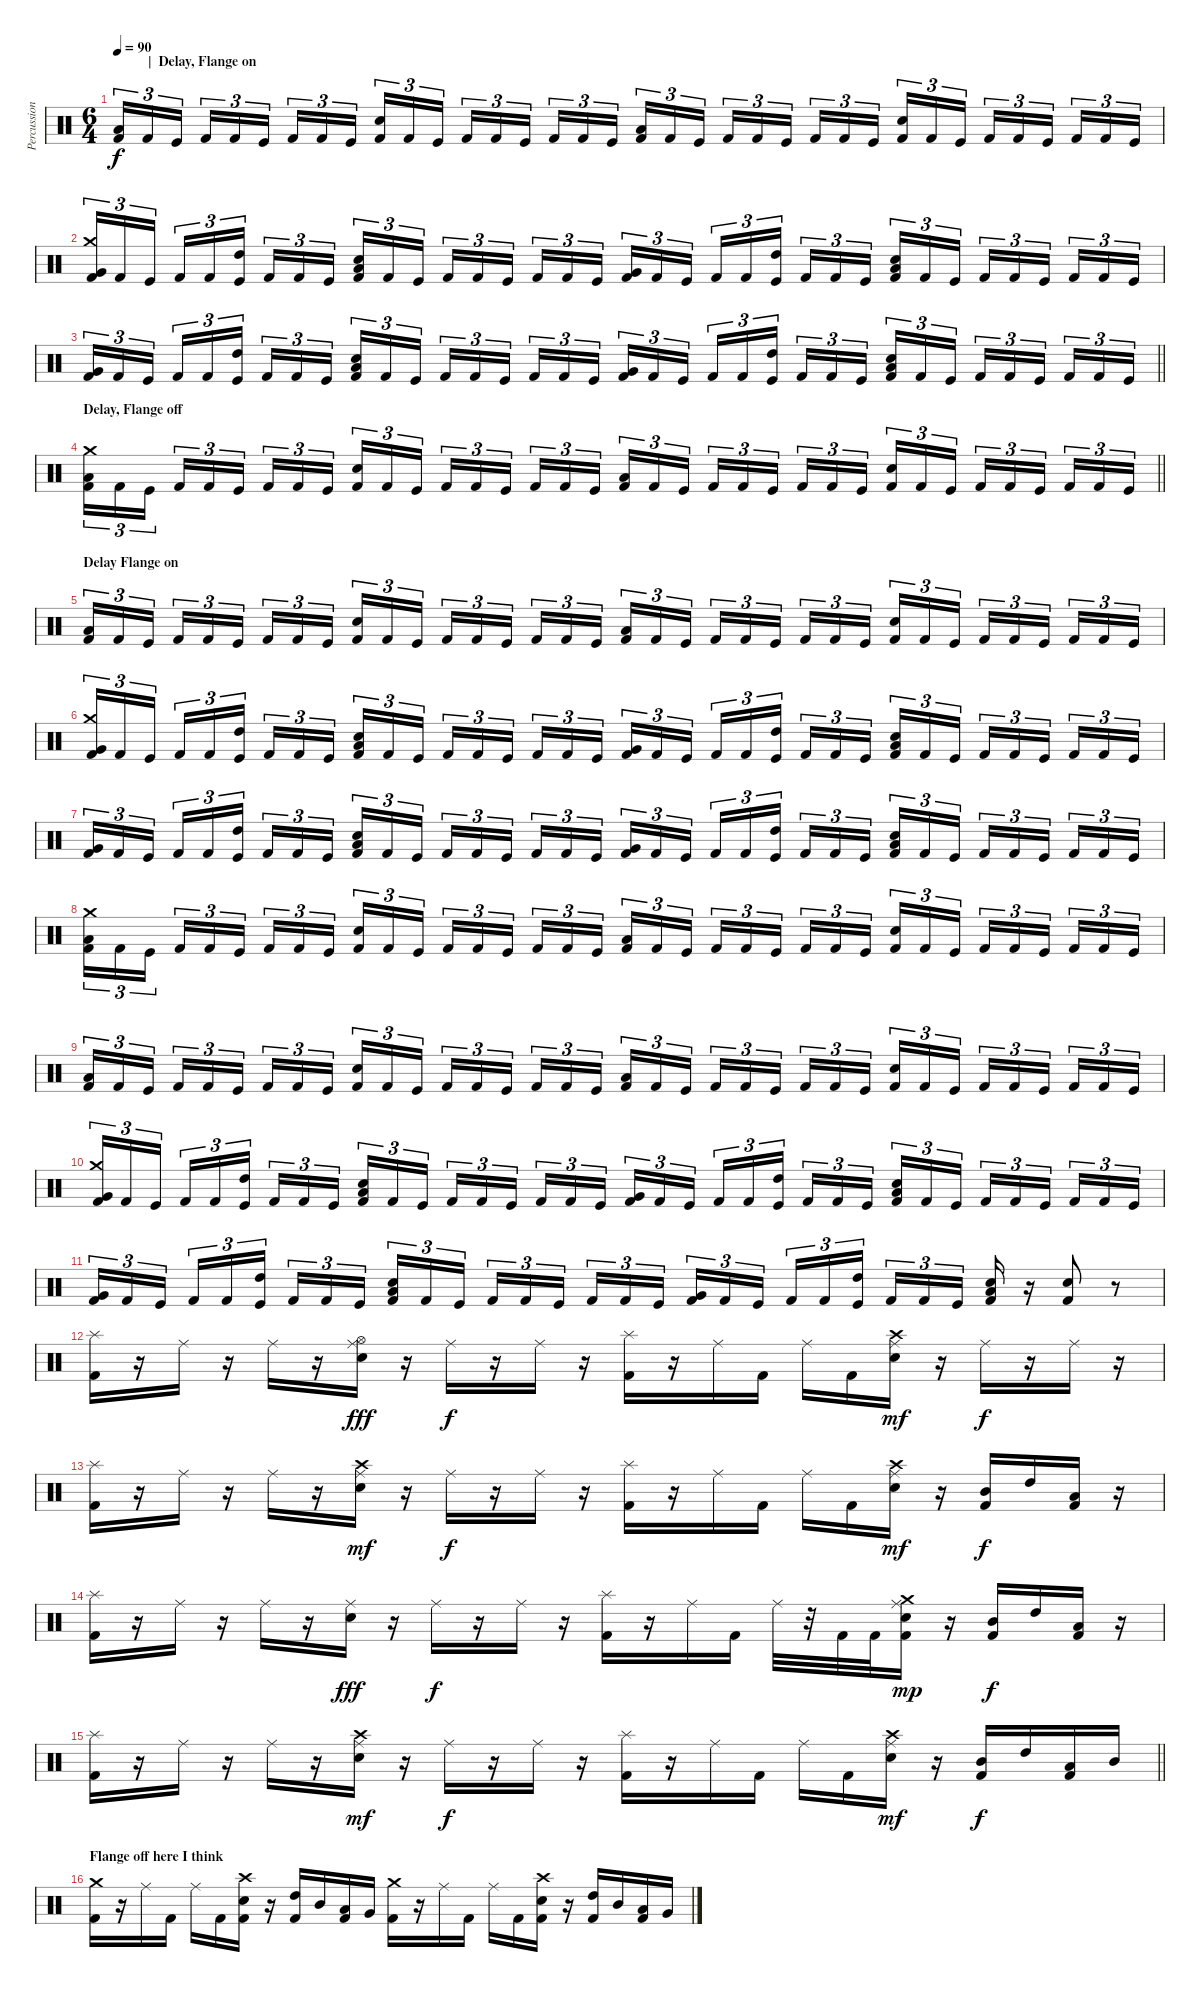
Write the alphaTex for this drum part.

\track ("Percussion" "Percussion") {instrument percussion}
\staff {score}
\articulation defaults
\ts (6 4)
\section ("" "          |  Delay, Flange on")
\tempo 90
\clef neutral
\ks c
("Low Floor Tom (hit)" "Kick (hit) 2").16{tu (3 2) dy f} "Kick (hit) 2".16{tu (3 2)} "Kick (hit)".16{tu (3 2)} "Kick (hit) 2".16{tu (3 2)} "Kick (hit) 2".16{tu (3 2)} "Kick (hit)".16{tu (3 2)} "Kick (hit) 2".16{tu (3 2)} "Kick (hit) 2".16{tu (3 2)} "Kick (hit)".16{tu (3 2)} ("Electric Snare (hit)" "Kick (hit) 2").16{tu (3 2)} "Kick (hit) 2".16{tu (3 2)} "Kick (hit)".16{tu (3 2)} "Kick (hit) 2".16{tu (3 2)} "Kick (hit) 2".16{tu (3 2)} "Kick (hit)".16{tu (3 2)} "Kick (hit) 2".16{tu (3 2)} "Kick (hit) 2".16{tu (3 2)} "Kick (hit)".16{tu (3 2)} ("Low Floor Tom (hit)" "Kick (hit) 2").16{tu (3 2)} "Kick (hit) 2".16{tu (3 2)} "Kick (hit)".16{tu (3 2)} "Kick (hit) 2".16{tu (3 2)} "Kick (hit) 2".16{tu (3 2)} "Kick (hit)".16{tu (3 2)} "Kick (hit) 2".16{tu (3 2)} "Kick (hit) 2".16{tu (3 2)} "Kick (hit)".16{tu (3 2)} ("Electric Snare (hit)" "Kick (hit) 2").16{tu (3 2)} "Kick (hit) 2".16{tu (3 2)} "Kick (hit)".16{tu (3 2)} "Kick (hit) 2".16{tu (3 2)} "Kick (hit) 2".16{tu (3 2)} "Kick (hit)".16{tu (3 2)} "Kick (hit) 2".16{tu (3 2)} "Kick (hit) 2".16{tu (3 2)} "Kick (hit)".16{tu (3 2)} |
("Crash medium (hit)" "Very Low Tom (hit)" "Kick (hit) 2").16{tu (3 2)} "Kick (hit) 2".16{tu (3 2)} "Kick (hit)".16{tu (3 2)} "Kick (hit) 2".16{tu (3 2)} "Kick (hit) 2".16{tu (3 2)} ("High Tom (hit)" "Kick (hit)").16{tu (3 2)} "Kick (hit) 2".16{tu (3 2)} "Kick (hit) 2".16{tu (3 2)} "Kick (hit)".16{tu (3 2)} ("Low Tom (hit)" "Electric Snare (hit)" "Kick (hit) 2").16{tu (3 2)} "Kick (hit) 2".16{tu (3 2)} "Kick (hit)".16{tu (3 2)} "Kick (hit) 2".16{tu (3 2)} "Kick (hit) 2".16{tu (3 2)} "Kick (hit)".16{tu (3 2)} "Kick (hit) 2".16{tu (3 2)} "Kick (hit) 2".16{tu (3 2)} "Kick (hit)".16{tu (3 2)} ("Very Low Tom (hit)" "Kick (hit) 2").16{tu (3 2)} "Kick (hit) 2".16{tu (3 2)} "Kick (hit)".16{tu (3 2)} "Kick (hit) 2".16{tu (3 2)} "Kick (hit) 2".16{tu (3 2)} ("High Tom (hit)" "Kick (hit)").16{tu (3 2)} "Kick (hit) 2".16{tu (3 2)} "Kick (hit) 2".16{tu (3 2)} "Kick (hit)".16{tu (3 2)} ("Low Tom (hit)" "Electric Snare (hit)" "Kick (hit) 2").16{tu (3 2)} "Kick (hit) 2".16{tu (3 2)} "Kick (hit)".16{tu (3 2)} "Kick (hit) 2".16{tu (3 2)} "Kick (hit) 2".16{tu (3 2)} "Kick (hit)".16{tu (3 2)} "Kick (hit) 2".16{tu (3 2)} "Kick (hit) 2".16{tu (3 2)} "Kick (hit)".16{tu (3 2)} |
\barLineRight lightlight
("Very Low Tom (hit)" "Kick (hit) 2").16{tu (3 2)} "Kick (hit) 2".16{tu (3 2)} "Kick (hit)".16{tu (3 2)} "Kick (hit) 2".16{tu (3 2)} "Kick (hit) 2".16{tu (3 2)} ("High Tom (hit)" "Kick (hit)").16{tu (3 2)} "Kick (hit) 2".16{tu (3 2)} "Kick (hit) 2".16{tu (3 2)} "Kick (hit)".16{tu (3 2)} ("Low Tom (hit)" "Electric Snare (hit)" "Kick (hit) 2").16{tu (3 2)} "Kick (hit) 2".16{tu (3 2)} "Kick (hit)".16{tu (3 2)} "Kick (hit) 2".16{tu (3 2)} "Kick (hit) 2".16{tu (3 2)} "Kick (hit)".16{tu (3 2)} "Kick (hit) 2".16{tu (3 2)} "Kick (hit) 2".16{tu (3 2)} "Kick (hit)".16{tu (3 2)} ("Very Low Tom (hit)" "Kick (hit) 2").16{tu (3 2)} "Kick (hit) 2".16{tu (3 2)} "Kick (hit)".16{tu (3 2)} "Kick (hit) 2".16{tu (3 2)} "Kick (hit) 2".16{tu (3 2)} ("High Tom (hit)" "Kick (hit)").16{tu (3 2)} "Kick (hit) 2".16{tu (3 2)} "Kick (hit) 2".16{tu (3 2)} "Kick (hit)".16{tu (3 2)} ("Low Tom (hit)" "Electric Snare (hit)" "Kick (hit) 2").16{tu (3 2)} "Kick (hit) 2".16{tu (3 2)} "Kick (hit)".16{tu (3 2)} "Kick (hit) 2".16{tu (3 2)} "Kick (hit) 2".16{tu (3 2)} "Kick (hit)".16{tu (3 2)} "Kick (hit) 2".16{tu (3 2)} "Kick (hit) 2".16{tu (3 2)} "Kick (hit)".16{tu (3 2)} |
\section ("" "Delay, Flange off")
\barLineRight lightlight
("Crash medium (hit)" "Low Floor Tom (hit)" "Kick (hit) 2").16{tu (3 2)} "Kick (hit) 2".16{tu (3 2)} "Kick (hit)".16{tu (3 2)} "Kick (hit) 2".16{tu (3 2)} "Kick (hit) 2".16{tu (3 2)} "Kick (hit)".16{tu (3 2)} "Kick (hit) 2".16{tu (3 2)} "Kick (hit) 2".16{tu (3 2)} "Kick (hit)".16{tu (3 2)} ("Electric Snare (hit)" "Kick (hit) 2").16{tu (3 2)} "Kick (hit) 2".16{tu (3 2)} "Kick (hit)".16{tu (3 2)} "Kick (hit) 2".16{tu (3 2)} "Kick (hit) 2".16{tu (3 2)} "Kick (hit)".16{tu (3 2)} "Kick (hit) 2".16{tu (3 2)} "Kick (hit) 2".16{tu (3 2)} "Kick (hit)".16{tu (3 2)} ("Low Floor Tom (hit)" "Kick (hit) 2").16{tu (3 2)} "Kick (hit) 2".16{tu (3 2)} "Kick (hit)".16{tu (3 2)} "Kick (hit) 2".16{tu (3 2)} "Kick (hit) 2".16{tu (3 2)} "Kick (hit)".16{tu (3 2)} "Kick (hit) 2".16{tu (3 2)} "Kick (hit) 2".16{tu (3 2)} "Kick (hit)".16{tu (3 2)} ("Electric Snare (hit)" "Kick (hit) 2").16{tu (3 2)} "Kick (hit) 2".16{tu (3 2)} "Kick (hit)".16{tu (3 2)} "Kick (hit) 2".16{tu (3 2)} "Kick (hit) 2".16{tu (3 2)} "Kick (hit)".16{tu (3 2)} "Kick (hit) 2".16{tu (3 2)} "Kick (hit) 2".16{tu (3 2)} "Kick (hit)".16{tu (3 2)} |
\section ("" "Delay Flange on")
("Low Floor Tom (hit)" "Kick (hit) 2").16{tu (3 2)} "Kick (hit) 2".16{tu (3 2)} "Kick (hit)".16{tu (3 2)} "Kick (hit) 2".16{tu (3 2)} "Kick (hit) 2".16{tu (3 2)} "Kick (hit)".16{tu (3 2)} "Kick (hit) 2".16{tu (3 2)} "Kick (hit) 2".16{tu (3 2)} "Kick (hit)".16{tu (3 2)} ("Electric Snare (hit)" "Kick (hit) 2").16{tu (3 2)} "Kick (hit) 2".16{tu (3 2)} "Kick (hit)".16{tu (3 2)} "Kick (hit) 2".16{tu (3 2)} "Kick (hit) 2".16{tu (3 2)} "Kick (hit)".16{tu (3 2)} "Kick (hit) 2".16{tu (3 2)} "Kick (hit) 2".16{tu (3 2)} "Kick (hit)".16{tu (3 2)} ("Low Floor Tom (hit)" "Kick (hit) 2").16{tu (3 2)} "Kick (hit) 2".16{tu (3 2)} "Kick (hit)".16{tu (3 2)} "Kick (hit) 2".16{tu (3 2)} "Kick (hit) 2".16{tu (3 2)} "Kick (hit)".16{tu (3 2)} "Kick (hit) 2".16{tu (3 2)} "Kick (hit) 2".16{tu (3 2)} "Kick (hit)".16{tu (3 2)} ("Electric Snare (hit)" "Kick (hit) 2").16{tu (3 2)} "Kick (hit) 2".16{tu (3 2)} "Kick (hit)".16{tu (3 2)} "Kick (hit) 2".16{tu (3 2)} "Kick (hit) 2".16{tu (3 2)} "Kick (hit)".16{tu (3 2)} "Kick (hit) 2".16{tu (3 2)} "Kick (hit) 2".16{tu (3 2)} "Kick (hit)".16{tu (3 2)} |
("Crash medium (hit)" "Very Low Tom (hit)" "Kick (hit) 2").16{tu (3 2)} "Kick (hit) 2".16{tu (3 2)} "Kick (hit)".16{tu (3 2)} "Kick (hit) 2".16{tu (3 2)} "Kick (hit) 2".16{tu (3 2)} ("High Tom (hit)" "Kick (hit)").16{tu (3 2)} "Kick (hit) 2".16{tu (3 2)} "Kick (hit) 2".16{tu (3 2)} "Kick (hit)".16{tu (3 2)} ("Low Tom (hit)" "Electric Snare (hit)" "Kick (hit) 2").16{tu (3 2)} "Kick (hit) 2".16{tu (3 2)} "Kick (hit)".16{tu (3 2)} "Kick (hit) 2".16{tu (3 2)} "Kick (hit) 2".16{tu (3 2)} "Kick (hit)".16{tu (3 2)} "Kick (hit) 2".16{tu (3 2)} "Kick (hit) 2".16{tu (3 2)} "Kick (hit)".16{tu (3 2)} ("Very Low Tom (hit)" "Kick (hit) 2").16{tu (3 2)} "Kick (hit) 2".16{tu (3 2)} "Kick (hit)".16{tu (3 2)} "Kick (hit) 2".16{tu (3 2)} "Kick (hit) 2".16{tu (3 2)} ("High Tom (hit)" "Kick (hit)").16{tu (3 2)} "Kick (hit) 2".16{tu (3 2)} "Kick (hit) 2".16{tu (3 2)} "Kick (hit)".16{tu (3 2)} ("Low Tom (hit)" "Electric Snare (hit)" "Kick (hit) 2").16{tu (3 2)} "Kick (hit) 2".16{tu (3 2)} "Kick (hit)".16{tu (3 2)} "Kick (hit) 2".16{tu (3 2)} "Kick (hit) 2".16{tu (3 2)} "Kick (hit)".16{tu (3 2)} "Kick (hit) 2".16{tu (3 2)} "Kick (hit) 2".16{tu (3 2)} "Kick (hit)".16{tu (3 2)} |
("Very Low Tom (hit)" "Kick (hit) 2").16{tu (3 2)} "Kick (hit) 2".16{tu (3 2)} "Kick (hit)".16{tu (3 2)} "Kick (hit) 2".16{tu (3 2)} "Kick (hit) 2".16{tu (3 2)} ("High Tom (hit)" "Kick (hit)").16{tu (3 2)} "Kick (hit) 2".16{tu (3 2)} "Kick (hit) 2".16{tu (3 2)} "Kick (hit)".16{tu (3 2)} ("Low Tom (hit)" "Electric Snare (hit)" "Kick (hit) 2").16{tu (3 2)} "Kick (hit) 2".16{tu (3 2)} "Kick (hit)".16{tu (3 2)} "Kick (hit) 2".16{tu (3 2)} "Kick (hit) 2".16{tu (3 2)} "Kick (hit)".16{tu (3 2)} "Kick (hit) 2".16{tu (3 2)} "Kick (hit) 2".16{tu (3 2)} "Kick (hit)".16{tu (3 2)} ("Very Low Tom (hit)" "Kick (hit) 2").16{tu (3 2)} "Kick (hit) 2".16{tu (3 2)} "Kick (hit)".16{tu (3 2)} "Kick (hit) 2".16{tu (3 2)} "Kick (hit) 2".16{tu (3 2)} ("High Tom (hit)" "Kick (hit)").16{tu (3 2)} "Kick (hit) 2".16{tu (3 2)} "Kick (hit) 2".16{tu (3 2)} "Kick (hit)".16{tu (3 2)} ("Low Tom (hit)" "Electric Snare (hit)" "Kick (hit) 2").16{tu (3 2)} "Kick (hit) 2".16{tu (3 2)} "Kick (hit)".16{tu (3 2)} "Kick (hit) 2".16{tu (3 2)} "Kick (hit) 2".16{tu (3 2)} "Kick (hit)".16{tu (3 2)} "Kick (hit) 2".16{tu (3 2)} "Kick (hit) 2".16{tu (3 2)} "Kick (hit)".16{tu (3 2)} |
("Crash medium (hit)" "Low Floor Tom (hit)" "Kick (hit) 2").16{tu (3 2)} "Kick (hit) 2".16{tu (3 2)} "Kick (hit)".16{tu (3 2)} "Kick (hit) 2".16{tu (3 2)} "Kick (hit) 2".16{tu (3 2)} "Kick (hit)".16{tu (3 2)} "Kick (hit) 2".16{tu (3 2)} "Kick (hit) 2".16{tu (3 2)} "Kick (hit)".16{tu (3 2)} ("Electric Snare (hit)" "Kick (hit) 2").16{tu (3 2)} "Kick (hit) 2".16{tu (3 2)} "Kick (hit)".16{tu (3 2)} "Kick (hit) 2".16{tu (3 2)} "Kick (hit) 2".16{tu (3 2)} "Kick (hit)".16{tu (3 2)} "Kick (hit) 2".16{tu (3 2)} "Kick (hit) 2".16{tu (3 2)} "Kick (hit)".16{tu (3 2)} ("Low Floor Tom (hit)" "Kick (hit) 2").16{tu (3 2)} "Kick (hit) 2".16{tu (3 2)} "Kick (hit)".16{tu (3 2)} "Kick (hit) 2".16{tu (3 2)} "Kick (hit) 2".16{tu (3 2)} "Kick (hit)".16{tu (3 2)} "Kick (hit) 2".16{tu (3 2)} "Kick (hit) 2".16{tu (3 2)} "Kick (hit)".16{tu (3 2)} ("Electric Snare (hit)" "Kick (hit) 2").16{tu (3 2)} "Kick (hit) 2".16{tu (3 2)} "Kick (hit)".16{tu (3 2)} "Kick (hit) 2".16{tu (3 2)} "Kick (hit) 2".16{tu (3 2)} "Kick (hit)".16{tu (3 2)} "Kick (hit) 2".16{tu (3 2)} "Kick (hit) 2".16{tu (3 2)} "Kick (hit)".16{tu (3 2)} |
("Low Floor Tom (hit)" "Kick (hit) 2").16{tu (3 2)} "Kick (hit) 2".16{tu (3 2)} "Kick (hit)".16{tu (3 2)} "Kick (hit) 2".16{tu (3 2)} "Kick (hit) 2".16{tu (3 2)} "Kick (hit)".16{tu (3 2)} "Kick (hit) 2".16{tu (3 2)} "Kick (hit) 2".16{tu (3 2)} "Kick (hit)".16{tu (3 2)} ("Electric Snare (hit)" "Kick (hit) 2").16{tu (3 2)} "Kick (hit) 2".16{tu (3 2)} "Kick (hit)".16{tu (3 2)} "Kick (hit) 2".16{tu (3 2)} "Kick (hit) 2".16{tu (3 2)} "Kick (hit)".16{tu (3 2)} "Kick (hit) 2".16{tu (3 2)} "Kick (hit) 2".16{tu (3 2)} "Kick (hit)".16{tu (3 2)} ("Low Floor Tom (hit)" "Kick (hit) 2").16{tu (3 2)} "Kick (hit) 2".16{tu (3 2)} "Kick (hit)".16{tu (3 2)} "Kick (hit) 2".16{tu (3 2)} "Kick (hit) 2".16{tu (3 2)} "Kick (hit)".16{tu (3 2)} "Kick (hit) 2".16{tu (3 2)} "Kick (hit) 2".16{tu (3 2)} "Kick (hit)".16{tu (3 2)} ("Electric Snare (hit)" "Kick (hit) 2").16{tu (3 2)} "Kick (hit) 2".16{tu (3 2)} "Kick (hit)".16{tu (3 2)} "Kick (hit) 2".16{tu (3 2)} "Kick (hit) 2".16{tu (3 2)} "Kick (hit)".16{tu (3 2)} "Kick (hit) 2".16{tu (3 2)} "Kick (hit) 2".16{tu (3 2)} "Kick (hit)".16{tu (3 2)} |
("Crash medium (hit)" "Very Low Tom (hit)" "Kick (hit) 2").16{tu (3 2)} "Kick (hit) 2".16{tu (3 2)} "Kick (hit)".16{tu (3 2)} "Kick (hit) 2".16{tu (3 2)} "Kick (hit) 2".16{tu (3 2)} ("High Tom (hit)" "Kick (hit)").16{tu (3 2)} "Kick (hit) 2".16{tu (3 2)} "Kick (hit) 2".16{tu (3 2)} "Kick (hit)".16{tu (3 2)} ("Low Tom (hit)" "Electric Snare (hit)" "Kick (hit) 2").16{tu (3 2)} "Kick (hit) 2".16{tu (3 2)} "Kick (hit)".16{tu (3 2)} "Kick (hit) 2".16{tu (3 2)} "Kick (hit) 2".16{tu (3 2)} "Kick (hit)".16{tu (3 2)} "Kick (hit) 2".16{tu (3 2)} "Kick (hit) 2".16{tu (3 2)} "Kick (hit)".16{tu (3 2)} ("Very Low Tom (hit)" "Kick (hit) 2").16{tu (3 2)} "Kick (hit) 2".16{tu (3 2)} "Kick (hit)".16{tu (3 2)} "Kick (hit) 2".16{tu (3 2)} "Kick (hit) 2".16{tu (3 2)} ("High Tom (hit)" "Kick (hit)").16{tu (3 2)} "Kick (hit) 2".16{tu (3 2)} "Kick (hit) 2".16{tu (3 2)} "Kick (hit)".16{tu (3 2)} ("Low Tom (hit)" "Electric Snare (hit)" "Kick (hit) 2").16{tu (3 2)} "Kick (hit) 2".16{tu (3 2)} "Kick (hit)".16{tu (3 2)} "Kick (hit) 2".16{tu (3 2)} "Kick (hit) 2".16{tu (3 2)} "Kick (hit)".16{tu (3 2)} "Kick (hit) 2".16{tu (3 2)} "Kick (hit) 2".16{tu (3 2)} "Kick (hit)".16{tu (3 2)} |
("Very Low Tom (hit)" "Kick (hit) 2").16{tu (3 2)} "Kick (hit) 2".16{tu (3 2)} "Kick (hit)".16{tu (3 2)} "Kick (hit) 2".16{tu (3 2)} "Kick (hit) 2".16{tu (3 2)} ("High Tom (hit)" "Kick (hit)").16{tu (3 2)} "Kick (hit) 2".16{tu (3 2)} "Kick (hit) 2".16{tu (3 2)} "Kick (hit)".16{tu (3 2)} ("Low Tom (hit)" "Electric Snare (hit)" "Kick (hit) 2").16{tu (3 2)} "Kick (hit) 2".16{tu (3 2)} "Kick (hit)".16{tu (3 2)} "Kick (hit) 2".16{tu (3 2)} "Kick (hit) 2".16{tu (3 2)} "Kick (hit)".16{tu (3 2)} "Kick (hit) 2".16{tu (3 2)} "Kick (hit) 2".16{tu (3 2)} "Kick (hit)".16{tu (3 2)} ("Very Low Tom (hit)" "Kick (hit) 2").16{tu (3 2)} "Kick (hit) 2".16{tu (3 2)} "Kick (hit)".16{tu (3 2)} "Kick (hit) 2".16{tu (3 2)} "Kick (hit) 2".16{tu (3 2)} ("High Tom (hit)" "Kick (hit)").16{tu (3 2)} "Kick (hit) 2".16{tu (3 2)} "Kick (hit) 2".16{tu (3 2)} "Kick (hit)".16{tu (3 2)} ("Low Tom (hit)" "Electric Snare (hit)" "Kick (hit) 2").16 r.16 ("Electric Snare (hit)" "Kick (hit) 2").8 r.8 |
("Splash (hit)" "Kick (hit) 2").16 r.16 "Ride (middle)".16 r.16 "Ride (middle)".16 r.16 ("Ride (middle)" "Hi-Hat (open)" "Electric Snare (hit)").16{dy fff} r.16 "Ride (middle)".16{dy f} r.16 "Ride (middle)".16 r.16 ("Splash (hit)" "Kick (hit) 2").16 r.16 "Ride (middle)".16 "Kick (hit) 2".16 "Ride (middle)".16 "Kick (hit) 2".16 ("Ride (middle)" "Crash high (hit)" "Electric Snare (hit)").16{dy mf} r.16 "Ride (middle)".16{dy f} r.16 "Ride (middle)".16 r.16 |
("Splash (hit)" "Kick (hit) 2").16 r.16 "Ride (middle)".16 r.16 "Ride (middle)".16 r.16 ("Ride (middle)" "Crash high (hit)" "Electric Snare (hit)").16{dy mf} r.16 "Ride (middle)".16{dy f} r.16 "Ride (middle)".16 r.16 ("Splash (hit)" "Kick (hit) 2").16 r.16 "Ride (middle)".16 "Kick (hit) 2".16 "Ride (middle)".16 "Kick (hit) 2".16 ("Ride (middle)" "Crash high (hit)" "Electric Snare (hit)").16{dy mf} r.16 ("Mid Tom (hit)" "Kick (hit) 2").16{dy f} "High Tom (hit)".16 ("Low Tom (hit)" "Kick (hit) 2").16 r.16 |
("Splash (hit)" "Kick (hit) 2").16 r.16 "Ride (middle)".16 r.16 "Ride (middle)".16 r.16 ("Ride (middle)" "Electric Snare (hit)").16{dy fff} r.16 "Ride (middle)".16{dy f} r.16 "Ride (middle)".16 r.16 ("Splash (hit)" "Kick (hit) 2").16 r.16 "Ride (middle)".16 "Kick (hit) 2".16 "Ride (middle)".32 r.32 "Kick (hit) 2".32 "Kick (hit) 2".32 ("Ride (middle)" "Crash medium (hit)" "Electric Snare (hit)" "Kick (hit) 2").16{dy mp} r.16 ("Mid Tom (hit)" "Kick (hit) 2").16{dy f} "High Tom (hit)".16 ("Low Tom (hit)" "Kick (hit) 2").16 r.16 |
\barLineRight lightlight
("Splash (hit)" "Kick (hit) 2").16 r.16 "Ride (middle)".16 r.16 "Ride (middle)".16 r.16 ("Ride (middle)" "Crash high (hit)" "Electric Snare (hit)").16{dy mf} r.16 "Ride (middle)".16{dy f} r.16 "Ride (middle)".16 r.16 ("Splash (hit)" "Kick (hit) 2").16 r.16 "Ride (middle)".16 "Kick (hit) 2".16 "Ride (middle)".16 "Kick (hit) 2".16 ("Ride (middle)" "Crash high (hit)" "Electric Snare (hit)").16{dy mf} r.16 ("Mid Tom (hit)" "Kick (hit) 2").16{dy f} "High Tom (hit)".16 ("Low Tom (hit)" "Kick (hit) 2").16 "Mid Tom (hit)".16 |
\section ("" "Flange off here I think")
("Crash medium (hit)" "Kick (hit) 2").16 r.16 "Ride (middle)".16 "Kick (hit) 2".16 "Ride (middle)".16 "Kick (hit) 2".16 ("Crash high (hit)" "Electric Snare (hit)" "Kick (hit) 2").16 r.16 ("High Tom (hit)" "Kick (hit) 2").16 "Mid Tom (hit)".16 ("Low Tom (hit)" "Kick (hit) 2").16 "Very Low Tom (hit)".16 ("Crash medium (hit)" "Kick (hit) 2").16 r.16 "Ride (middle)".16 "Kick (hit) 2".16 "Ride (middle)".16 "Kick (hit) 2".16 ("Crash high (hit)" "Electric Snare (hit)" "Kick (hit) 2").16 r.16 ("High Tom (hit)" "Kick (hit) 2").16 "Mid Tom (hit)".16 ("Low Tom (hit)" "Kick (hit) 2").16 "Very Low Tom (hit)".16
